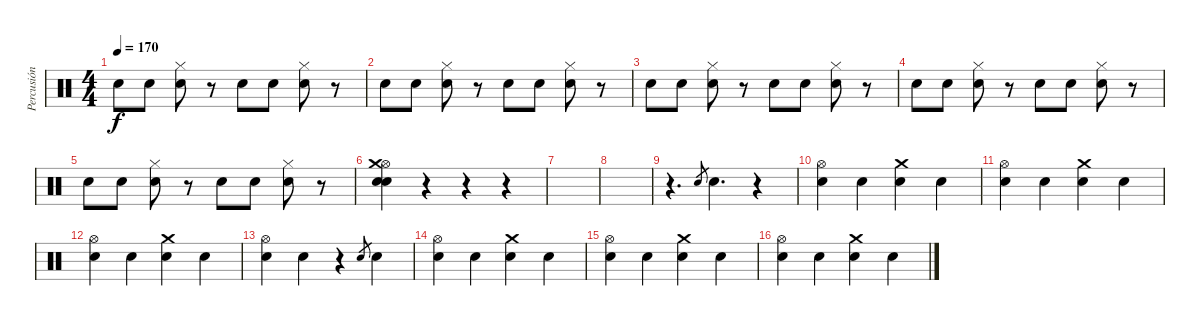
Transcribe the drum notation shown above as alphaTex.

\track ("Percusión" "Percusión") {instrument percussion}
\staff {score}
\articulation defaults
\ts (4 4)
\tempo 170
\clef neutral
\ks c "Electric Snare (hit)".8{dy f} "Electric Snare (hit)".8
("Hi-Hat (closed)" "Snare (hit) 2").8 r.8 "Electric Snare (hit)".8 "Electric Snare (hit)".8 ("Hi-Hat (closed)" "Snare (hit) 2").8 r.8 |
"Electric Snare (hit)".8 "Electric Snare (hit)".8 ("Hi-Hat (closed)" "Snare (hit) 2").8 r.8 "Electric Snare (hit)".8 "Electric Snare (hit)".8 ("Hi-Hat (closed)" "Snare (hit) 2").8 r.8 |
"Electric Snare (hit)".8 "Electric Snare (hit)".8 ("Hi-Hat (closed)" "Snare (hit) 2").8 r.8 "Electric Snare (hit)".8 "Electric Snare (hit)".8 ("Hi-Hat (closed)" "Snare (hit) 2").8 r.8 |
"Electric Snare (hit)".8 "Electric Snare (hit)".8 ("Hi-Hat (closed)" "Snare (hit) 2").8 r.8 "Electric Snare (hit)".8 "Electric Snare (hit)".8 ("Hi-Hat (closed)" "Snare (hit) 2").8 r.8 |
"Electric Snare (hit)".8 "Electric Snare (hit)".8 ("Hi-Hat (closed)" "Snare (hit) 2").8 r.8 "Electric Snare (hit)".8 "Electric Snare (hit)".8 ("Hi-Hat (closed)" "Snare (hit) 2").8 r.8 |
("Hi-Hat (open)" "Crash medium (hit)" "Snare (hit) 2" "Electric Snare (hit)").4 r.4 r.4 r.4 |
|
|
r.4{d} "Electric Snare (hit)".8{gr} "Electric Snare (hit)".4{d} r.4 |
("Hi-Hat (open)" "Snare (hit) 2").4 "Snare (hit) 2".4 ("Crash medium (hit)" "Electric Snare (hit)").4 "Electric Snare (hit)".4 |
("Hi-Hat (open)" "Snare (hit) 2").4 "Snare (hit) 2".4 ("Crash medium (hit)" "Electric Snare (hit)").4 "Electric Snare (hit)".4 |
("Hi-Hat (open)" "Snare (hit) 2").4 "Snare (hit) 2".4 ("Crash medium (hit)" "Electric Snare (hit)").4 "Electric Snare (hit)".4 |
("Hi-Hat (open)" "Snare (hit) 2").4 "Snare (hit) 2".4 r.4 "Electric Snare (hit)".8{gr} "Electric Snare (hit)".4 |
("Hi-Hat (open)" "Snare (hit) 2").4 "Snare (hit) 2".4 ("Crash medium (hit)" "Electric Snare (hit)").4 "Electric Snare (hit)".4 |
("Hi-Hat (open)" "Snare (hit) 2").4 "Snare (hit) 2".4 ("Crash medium (hit)" "Electric Snare (hit)").4 "Electric Snare (hit)".4 |
("Hi-Hat (open)" "Snare (hit) 2").4 "Snare (hit) 2".4 ("Crash medium (hit)" "Electric Snare (hit)").4 "Electric Snare (hit)".4
